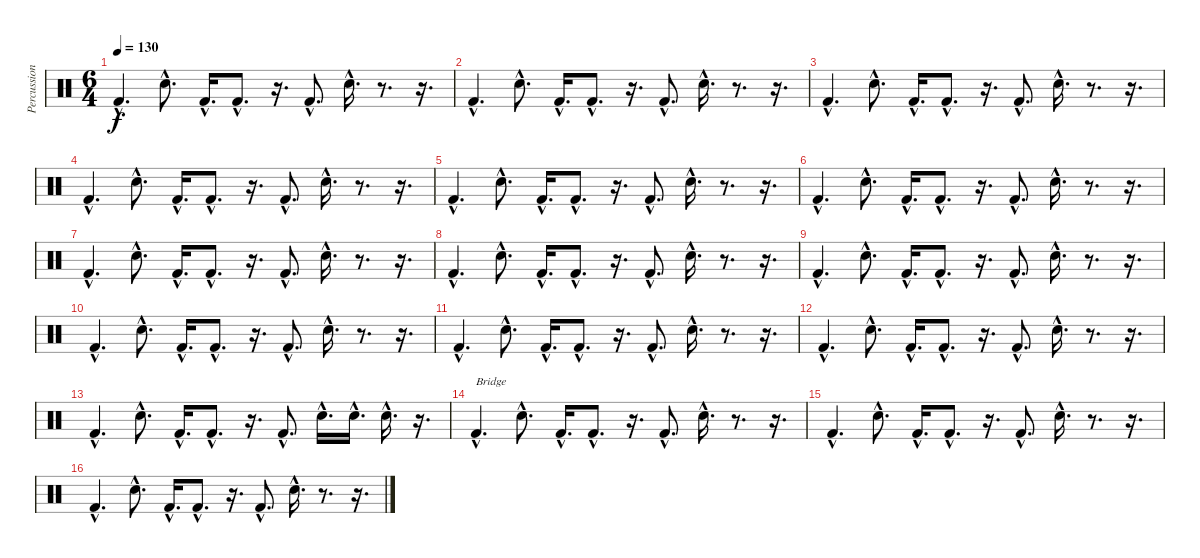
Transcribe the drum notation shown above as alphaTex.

\track ("Percussion" "Percussion") {instrument percussion}
\staff {score}
\articulation defaults
\ts (6 4)
\tempo 130
\clef neutral
\ks c "Kick (hit) 2"{hac}.4{d dy f} "Snare (hit) 2"{hac}.8{d} "Kick (hit) 2"{hac}.16{d} "Kick (hit) 2"{hac}.8{d}
r.16{d} "Kick (hit) 2"{hac}.8{d} "Snare (hit) 2"{hac}.16{d} r.8{d} r.16{d} |
"Kick (hit) 2"{hac}.4{d} "Snare (hit) 2"{hac}.8{d} "Kick (hit) 2"{hac}.16{d} "Kick (hit) 2"{hac}.8{d} r.16{d} "Kick (hit) 2"{hac}.8{d} "Snare (hit) 2"{hac}.16{d} r.8{d} r.16{d} |
"Kick (hit) 2"{hac}.4{d} "Snare (hit) 2"{hac}.8{d} "Kick (hit) 2"{hac}.16{d} "Kick (hit) 2"{hac}.8{d} r.16{d} "Kick (hit) 2"{hac}.8{d} "Snare (hit) 2"{hac}.16{d} r.8{d} r.16{d} |
"Kick (hit) 2"{hac}.4{d} "Snare (hit) 2"{hac}.8{d} "Kick (hit) 2"{hac}.16{d} "Kick (hit) 2"{hac}.8{d} r.16{d} "Kick (hit) 2"{hac}.8{d} "Snare (hit) 2"{hac}.16{d} r.8{d} r.16{d} |
"Kick (hit) 2"{hac}.4{d} "Snare (hit) 2"{hac}.8{d} "Kick (hit) 2"{hac}.16{d} "Kick (hit) 2"{hac}.8{d} r.16{d} "Kick (hit) 2"{hac}.8{d} "Snare (hit) 2"{hac}.16{d} r.8{d} r.16{d} |
"Kick (hit) 2"{hac}.4{d} "Snare (hit) 2"{hac}.8{d} "Kick (hit) 2"{hac}.16{d} "Kick (hit) 2"{hac}.8{d} r.16{d} "Kick (hit) 2"{hac}.8{d} "Snare (hit) 2"{hac}.16{d} r.8{d} r.16{d} |
"Kick (hit) 2"{hac}.4{d} "Snare (hit) 2"{hac}.8{d} "Kick (hit) 2"{hac}.16{d} "Kick (hit) 2"{hac}.8{d} r.16{d} "Kick (hit) 2"{hac}.8{d} "Snare (hit) 2"{hac}.16{d} r.8{d} r.16{d} |
"Kick (hit) 2"{hac}.4{d} "Snare (hit) 2"{hac}.8{d} "Kick (hit) 2"{hac}.16{d} "Kick (hit) 2"{hac}.8{d} r.16{d} "Kick (hit) 2"{hac}.8{d} "Snare (hit) 2"{hac}.16{d} r.8{d} r.16{d} |
"Kick (hit) 2"{hac}.4{d} "Snare (hit) 2"{hac}.8{d} "Kick (hit) 2"{hac}.16{d} "Kick (hit) 2"{hac}.8{d} r.16{d} "Kick (hit) 2"{hac}.8{d} "Snare (hit) 2"{hac}.16{d} r.8{d} r.16{d} |
"Kick (hit) 2"{hac}.4{d} "Snare (hit) 2"{hac}.8{d} "Kick (hit) 2"{hac}.16{d} "Kick (hit) 2"{hac}.8{d} r.16{d} "Kick (hit) 2"{hac}.8{d} "Snare (hit) 2"{hac}.16{d} r.8{d} r.16{d} |
"Kick (hit) 2"{hac}.4{d} "Snare (hit) 2"{hac}.8{d} "Kick (hit) 2"{hac}.16{d} "Kick (hit) 2"{hac}.8{d} r.16{d} "Kick (hit) 2"{hac}.8{d} "Snare (hit) 2"{hac}.16{d} r.8{d} r.16{d} |
"Kick (hit) 2"{hac}.4{d} "Snare (hit) 2"{hac}.8{d} "Kick (hit) 2"{hac}.16{d} "Kick (hit) 2"{hac}.8{d} r.16{d} "Kick (hit) 2"{hac}.8{d} "Snare (hit) 2"{hac}.16{d} r.8{d} r.16{d} |
"Kick (hit) 2"{hac}.4{d} "Snare (hit) 2"{hac}.8{d} "Kick (hit) 2"{hac}.16{d} "Kick (hit) 2"{hac}.8{d} r.16{d} "Kick (hit) 2"{hac}.8{d} "Snare (hit) 2"{hac}.16{d} "Snare (hit) 2"{hac}.16{d} "Snare (hit) 2"{hac}.16{d} r.16{d} |
"Kick (hit) 2"{hac}.4{d txt "Bridge"} "Snare (hit) 2"{hac}.8{d} "Kick (hit) 2"{hac}.16{d} "Kick (hit) 2"{hac}.8{d} r.16{d} "Kick (hit) 2"{hac}.8{d} "Snare (hit) 2"{hac}.16{d} r.8{d} r.16{d} |
"Kick (hit) 2"{hac}.4{d} "Snare (hit) 2"{hac}.8{d} "Kick (hit) 2"{hac}.16{d} "Kick (hit) 2"{hac}.8{d} r.16{d} "Kick (hit) 2"{hac}.8{d} "Snare (hit) 2"{hac}.16{d} r.8{d} r.16{d} |
"Kick (hit) 2"{hac}.4{d} "Snare (hit) 2"{hac}.8{d} "Kick (hit) 2"{hac}.16{d} "Kick (hit) 2"{hac}.8{d} r.16{d} "Kick (hit) 2"{hac}.8{d} "Snare (hit) 2"{hac}.16{d} r.8{d} r.16{d}
